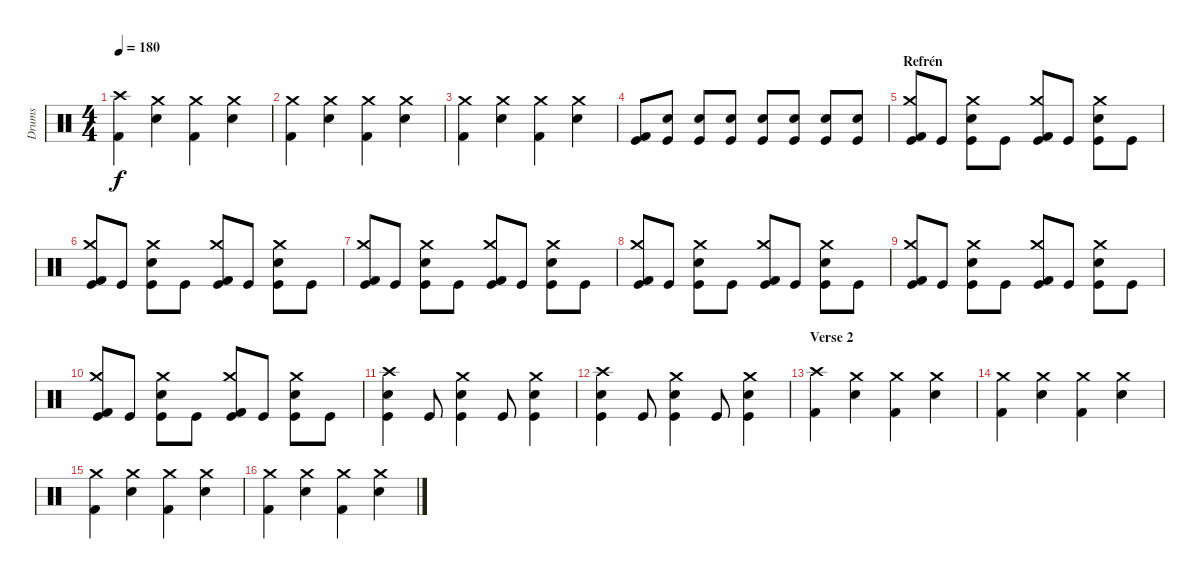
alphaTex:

\track ("Drums" "Drums") {instrument percussion}
\staff {score}
\articulation defaults
\ts (4 4)
\tempo 180
\clef neutral
\ks c
("Crash high (hit)" "Kick (hit) 2").4{dy f} ("Crash medium (hit)" "Snare (hit) 2").4 ("Crash medium (hit)" "Kick (hit) 2").4 ("Crash medium (hit)" "Snare (hit) 2").4 |
("Crash medium (hit)" "Kick (hit) 2").4 ("Crash medium (hit)" "Snare (hit) 2").4 ("Crash medium (hit)" "Kick (hit) 2").4 ("Crash medium (hit)" "Snare (hit) 2").4 |
("Crash medium (hit)" "Kick (hit) 2").4 ("Crash medium (hit)" "Snare (hit) 2").4 ("Crash medium (hit)" "Kick (hit) 2").4 ("Crash medium (hit)" "Snare (hit) 2").4 |
("Kick (hit)" "Kick (hit) 2").8 ("Kick (hit)" "Snare (hit) 2").8 ("Kick (hit)" "Snare (hit) 2").8 ("Kick (hit)" "Snare (hit) 2").8 ("Kick (hit)" "Snare (hit) 2").8 ("Kick (hit)" "Snare (hit) 2").8 ("Kick (hit)" "Snare (hit) 2").8 ("Kick (hit)" "Snare (hit) 2").8 |
\section ("" "Refrén")
("Crash medium (hit)" "Kick (hit)" "Kick (hit) 2").8 "Kick (hit)".8 ("Crash medium (hit)" "Kick (hit)" "Electric Snare (hit)").8 "Kick (hit)".8 ("Crash medium (hit)" "Kick (hit)" "Kick (hit) 2").8 "Kick (hit)".8 ("Crash medium (hit)" "Kick (hit)" "Electric Snare (hit)").8 "Kick (hit)".8 |
("Crash medium (hit)" "Kick (hit)" "Kick (hit) 2").8 "Kick (hit)".8 ("Crash medium (hit)" "Kick (hit)" "Electric Snare (hit)").8 "Kick (hit)".8 ("Crash medium (hit)" "Kick (hit)" "Kick (hit) 2").8 "Kick (hit)".8 ("Crash medium (hit)" "Kick (hit)" "Electric Snare (hit)").8 "Kick (hit)".8 |
("Crash medium (hit)" "Kick (hit)" "Kick (hit) 2").8 "Kick (hit)".8 ("Crash medium (hit)" "Kick (hit)" "Electric Snare (hit)").8 "Kick (hit)".8 ("Crash medium (hit)" "Kick (hit)" "Kick (hit) 2").8 "Kick (hit)".8 ("Crash medium (hit)" "Kick (hit)" "Electric Snare (hit)").8 "Kick (hit)".8 |
("Crash medium (hit)" "Kick (hit)" "Kick (hit) 2").8 "Kick (hit)".8 ("Crash medium (hit)" "Kick (hit)" "Electric Snare (hit)").8 "Kick (hit)".8 ("Crash medium (hit)" "Kick (hit)" "Kick (hit) 2").8 "Kick (hit)".8 ("Crash medium (hit)" "Kick (hit)" "Electric Snare (hit)").8 "Kick (hit)".8 |
("Crash medium (hit)" "Kick (hit)" "Kick (hit) 2").8 "Kick (hit)".8 ("Crash medium (hit)" "Kick (hit)" "Electric Snare (hit)").8 "Kick (hit)".8 ("Crash medium (hit)" "Kick (hit)" "Kick (hit) 2").8 "Kick (hit)".8 ("Crash medium (hit)" "Kick (hit)" "Electric Snare (hit)").8 "Kick (hit)".8 |
("Crash medium (hit)" "Kick (hit)" "Kick (hit) 2").8 "Kick (hit)".8 ("Crash medium (hit)" "Kick (hit)" "Electric Snare (hit)").8 "Kick (hit)".8 ("Crash medium (hit)" "Kick (hit)" "Kick (hit) 2").8 "Kick (hit)".8 ("Crash medium (hit)" "Kick (hit)" "Electric Snare (hit)").8 "Kick (hit)".8 |
("Crash high (hit)" "Kick (hit)" "Snare (hit) 2").4 "Kick (hit)".8 ("Crash medium (hit)" "Kick (hit)" "Snare (hit) 2").4 "Kick (hit)".8 ("Crash medium (hit)" "Kick (hit)" "Snare (hit) 2").4 |
("Crash high (hit)" "Kick (hit)" "Snare (hit) 2").4 "Kick (hit)".8 ("Crash medium (hit)" "Kick (hit)" "Snare (hit) 2").4 "Kick (hit)".8 ("Crash medium (hit)" "Kick (hit)" "Snare (hit) 2").4 |
\section ("" "Verse 2")
("Crash high (hit)" "Kick (hit) 2").4 ("Crash medium (hit)" "Snare (hit) 2").4 ("Crash medium (hit)" "Kick (hit) 2").4 ("Crash medium (hit)" "Snare (hit) 2").4 |
("Crash medium (hit)" "Kick (hit) 2").4 ("Crash medium (hit)" "Snare (hit) 2").4 ("Crash medium (hit)" "Kick (hit) 2").4 ("Crash medium (hit)" "Snare (hit) 2").4 |
("Crash medium (hit)" "Kick (hit) 2").4 ("Crash medium (hit)" "Snare (hit) 2").4 ("Crash medium (hit)" "Kick (hit) 2").4 ("Crash medium (hit)" "Snare (hit) 2").4 |
("Crash medium (hit)" "Kick (hit) 2").4 ("Crash medium (hit)" "Snare (hit) 2").4 ("Crash medium (hit)" "Kick (hit) 2").4 ("Crash medium (hit)" "Snare (hit) 2").4
